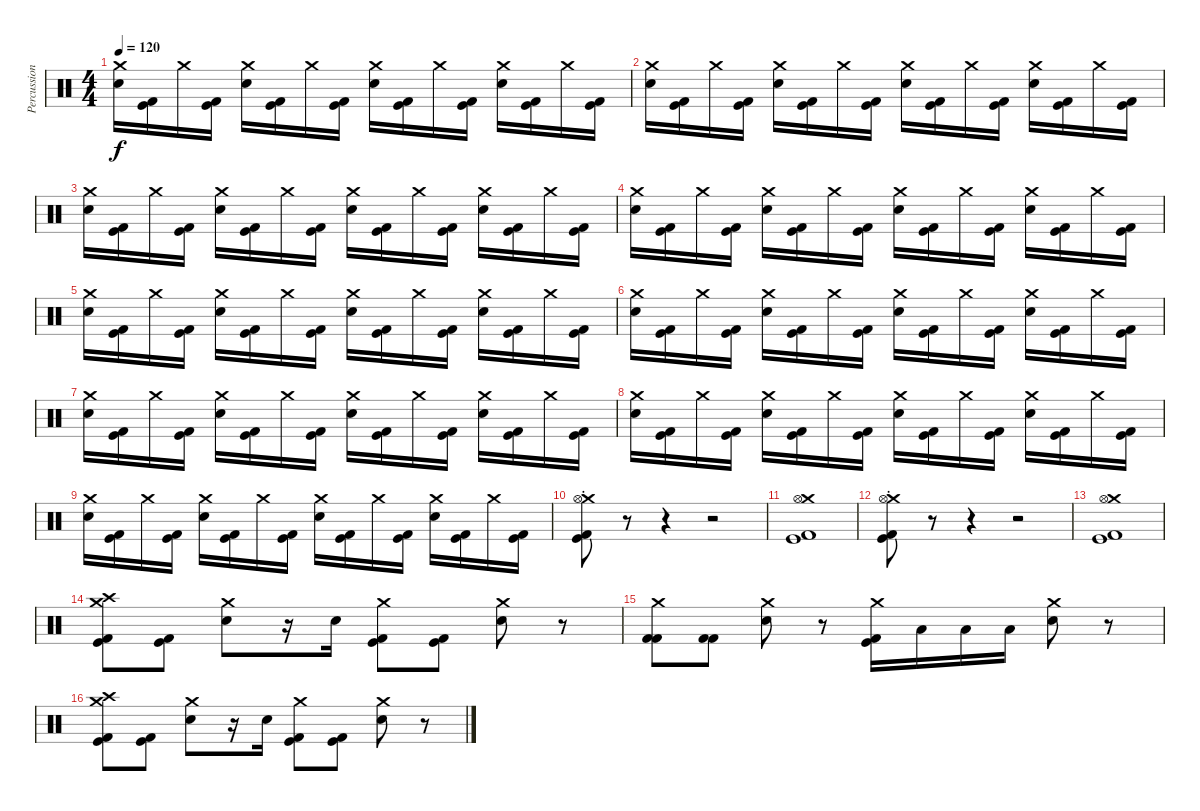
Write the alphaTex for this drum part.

\track ("Percussion" "Percussion") {instrument percussion}
\staff {score}
\articulation defaults
\ts (4 4)
\tempo 120
\clef neutral
\ks c
("Crash medium (hit)" "Electric Snare (hit)").16{dy f} ("Kick (hit)" "Kick (hit) 2").16 "Crash medium (hit)".16 ("Kick (hit)" "Kick (hit) 2").16 ("Crash medium (hit)" "Electric Snare (hit)").16 ("Kick (hit)" "Kick (hit) 2").16 "Crash medium (hit)".16 ("Kick (hit)" "Kick (hit) 2").16 ("Crash medium (hit)" "Electric Snare (hit)").16 ("Kick (hit)" "Kick (hit) 2").16 "Crash medium (hit)".16 ("Kick (hit)" "Kick (hit) 2").16 ("Crash medium (hit)" "Electric Snare (hit)").16 ("Kick (hit)" "Kick (hit) 2").16 "Crash medium (hit)".16 ("Kick (hit)" "Kick (hit) 2").16 |
("Crash medium (hit)" "Electric Snare (hit)").16 ("Kick (hit)" "Kick (hit) 2").16 "Crash medium (hit)".16 ("Kick (hit)" "Kick (hit) 2").16 ("Crash medium (hit)" "Electric Snare (hit)").16 ("Kick (hit)" "Kick (hit) 2").16 "Crash medium (hit)".16 ("Kick (hit)" "Kick (hit) 2").16 ("Crash medium (hit)" "Electric Snare (hit)").16 ("Kick (hit)" "Kick (hit) 2").16 "Crash medium (hit)".16 ("Kick (hit)" "Kick (hit) 2").16 ("Crash medium (hit)" "Electric Snare (hit)").16 ("Kick (hit)" "Kick (hit) 2").16 "Crash medium (hit)".16 ("Kick (hit)" "Kick (hit) 2").16 |
("Crash medium (hit)" "Electric Snare (hit)").16 ("Kick (hit)" "Kick (hit) 2").16 "Crash medium (hit)".16 ("Kick (hit)" "Kick (hit) 2").16 ("Crash medium (hit)" "Electric Snare (hit)").16 ("Kick (hit)" "Kick (hit) 2").16 "Crash medium (hit)".16 ("Kick (hit)" "Kick (hit) 2").16 ("Crash medium (hit)" "Electric Snare (hit)").16 ("Kick (hit)" "Kick (hit) 2").16 "Crash medium (hit)".16 ("Kick (hit)" "Kick (hit) 2").16 ("Crash medium (hit)" "Electric Snare (hit)").16 ("Kick (hit)" "Kick (hit) 2").16 "Crash medium (hit)".16 ("Kick (hit)" "Kick (hit) 2").16 |
("Crash medium (hit)" "Electric Snare (hit)").16 ("Kick (hit)" "Kick (hit) 2").16 "Crash medium (hit)".16 ("Kick (hit)" "Kick (hit) 2").16 ("Crash medium (hit)" "Electric Snare (hit)").16 ("Kick (hit)" "Kick (hit) 2").16 "Crash medium (hit)".16 ("Kick (hit)" "Kick (hit) 2").16 ("Crash medium (hit)" "Electric Snare (hit)").16 ("Kick (hit)" "Kick (hit) 2").16 "Crash medium (hit)".16 ("Kick (hit)" "Kick (hit) 2").16 ("Crash medium (hit)" "Electric Snare (hit)").16 ("Kick (hit)" "Kick (hit) 2").16 "Crash medium (hit)".16 ("Kick (hit)" "Kick (hit) 2").16 |
("Crash medium (hit)" "Electric Snare (hit)").16 ("Kick (hit)" "Kick (hit) 2").16 "Crash medium (hit)".16 ("Kick (hit)" "Kick (hit) 2").16 ("Crash medium (hit)" "Electric Snare (hit)").16 ("Kick (hit)" "Kick (hit) 2").16 "Crash medium (hit)".16 ("Kick (hit)" "Kick (hit) 2").16 ("Crash medium (hit)" "Electric Snare (hit)").16 ("Kick (hit)" "Kick (hit) 2").16 "Crash medium (hit)".16 ("Kick (hit)" "Kick (hit) 2").16 ("Crash medium (hit)" "Electric Snare (hit)").16 ("Kick (hit)" "Kick (hit) 2").16 "Crash medium (hit)".16 ("Kick (hit)" "Kick (hit) 2").16 |
("Crash medium (hit)" "Electric Snare (hit)").16 ("Kick (hit)" "Kick (hit) 2").16 "Crash medium (hit)".16 ("Kick (hit)" "Kick (hit) 2").16 ("Crash medium (hit)" "Electric Snare (hit)").16 ("Kick (hit)" "Kick (hit) 2").16 "Crash medium (hit)".16 ("Kick (hit)" "Kick (hit) 2").16 ("Crash medium (hit)" "Electric Snare (hit)").16 ("Kick (hit)" "Kick (hit) 2").16 "Crash medium (hit)".16 ("Kick (hit)" "Kick (hit) 2").16 ("Crash medium (hit)" "Electric Snare (hit)").16 ("Kick (hit)" "Kick (hit) 2").16 "Crash medium (hit)".16 ("Kick (hit)" "Kick (hit) 2").16 |
("Crash medium (hit)" "Electric Snare (hit)").16 ("Kick (hit)" "Kick (hit) 2").16 "Crash medium (hit)".16 ("Kick (hit)" "Kick (hit) 2").16 ("Crash medium (hit)" "Electric Snare (hit)").16 ("Kick (hit)" "Kick (hit) 2").16 "Crash medium (hit)".16 ("Kick (hit)" "Kick (hit) 2").16 ("Crash medium (hit)" "Electric Snare (hit)").16 ("Kick (hit)" "Kick (hit) 2").16 "Crash medium (hit)".16 ("Kick (hit)" "Kick (hit) 2").16 ("Crash medium (hit)" "Electric Snare (hit)").16 ("Kick (hit)" "Kick (hit) 2").16 "Crash medium (hit)".16 ("Kick (hit)" "Kick (hit) 2").16 |
("Crash medium (hit)" "Electric Snare (hit)").16 ("Kick (hit)" "Kick (hit) 2").16 "Crash medium (hit)".16 ("Kick (hit)" "Kick (hit) 2").16 ("Crash medium (hit)" "Electric Snare (hit)").16 ("Kick (hit)" "Kick (hit) 2").16 "Crash medium (hit)".16 ("Kick (hit)" "Kick (hit) 2").16 ("Crash medium (hit)" "Electric Snare (hit)").16 ("Kick (hit)" "Kick (hit) 2").16 "Crash medium (hit)".16 ("Kick (hit)" "Kick (hit) 2").16 ("Crash medium (hit)" "Electric Snare (hit)").16 ("Kick (hit)" "Kick (hit) 2").16 "Crash medium (hit)".16 ("Kick (hit)" "Kick (hit) 2").16 |
("Crash medium (hit)" "Electric Snare (hit)").16 ("Kick (hit)" "Kick (hit) 2").16 "Crash medium (hit)".16 ("Kick (hit)" "Kick (hit) 2").16 ("Crash medium (hit)" "Electric Snare (hit)").16 ("Kick (hit)" "Kick (hit) 2").16 "Crash medium (hit)".16 ("Kick (hit)" "Kick (hit) 2").16 ("Crash medium (hit)" "Electric Snare (hit)").16 ("Kick (hit)" "Kick (hit) 2").16 "Crash medium (hit)".16 ("Kick (hit)" "Kick (hit) 2").16 ("Crash medium (hit)" "Electric Snare (hit)").16 ("Kick (hit)" "Kick (hit) 2").16 "Crash medium (hit)".16 ("Kick (hit)" "Kick (hit) 2").16 |
("Crash medium (hit)"{st} "Hi-Hat (open)"{st} "Kick (hit)" "Kick (hit) 2").8 r.8 r.4 r.2 |
("Crash medium (hit)" "Hi-Hat (open)" "Kick (hit)" "Kick (hit) 2").1 |
("Crash medium (hit)"{st} "Hi-Hat (open)"{st} "Kick (hit)" "Kick (hit) 2").8 r.8 r.4 r.2 |
("Crash medium (hit)" "Hi-Hat (open)" "Kick (hit)" "Kick (hit) 2").1 |
("Crash medium (hit)" "Crash high (hit)" "Kick (hit)" "Kick (hit) 2").8 ("Kick (hit)" "Kick (hit) 2").8 ("Crash medium (hit)" "Electric Snare (hit)").8 r.16 "Electric Snare (hit)".16 ("Crash medium (hit)" "Kick (hit)" "Kick (hit) 2").8 ("Kick (hit)" "Kick (hit) 2").8 ("Crash medium (hit)" "Electric Snare (hit)").8 r.8 |
("Crash medium (hit)" "Kick (hit) 2" "Kick (hit) 2").8 ("Kick (hit) 2" "Kick (hit) 2").8 ("Crash medium (hit)" "Electric Snare (hit)").8 r.8 ("Crash medium (hit)" "Kick (hit)" "Kick (hit) 2").16 "Low Tom (hit)".16 "Low Tom (hit)".16 "Low Tom (hit)".16 ("Crash medium (hit)" "Electric Snare (hit)").8 r.8 |
("Crash medium (hit)" "Crash high (hit)" "Kick (hit)" "Kick (hit) 2").8 ("Kick (hit)" "Kick (hit) 2").8 ("Crash medium (hit)" "Electric Snare (hit)").8 r.16 "Electric Snare (hit)".16 ("Crash medium (hit)" "Kick (hit)" "Kick (hit) 2").8 ("Kick (hit)" "Kick (hit) 2").8 ("Crash medium (hit)" "Electric Snare (hit)").8 r.8
